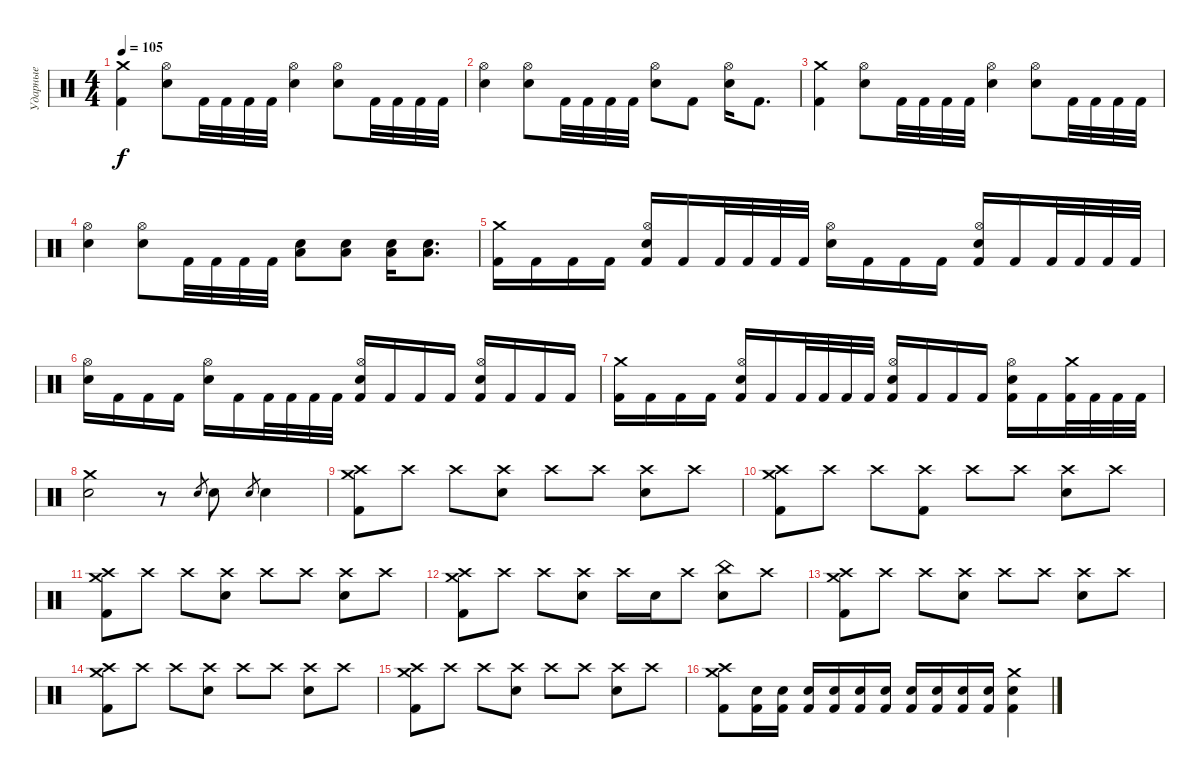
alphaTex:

\track ("Ударные" "Ударные") {instrument percussion}
\staff {score}
\articulation defaults
\ts (4 4)
\tempo 105
\clef neutral
\ks c
("Crash medium (hit)" "Kick (hit) 2").4{dy f} ("Hi-Hat (open)" "Electric Snare (hit)").8 "Kick (hit) 2".32 "Kick (hit) 2".32 "Kick (hit) 2".32 "Kick (hit) 2".32 ("Hi-Hat (open)" "Electric Snare (hit)").4 ("Hi-Hat (open)" "Electric Snare (hit)").8 "Kick (hit) 2".32 "Kick (hit) 2".32 "Kick (hit) 2".32 "Kick (hit) 2".32 |
("Hi-Hat (open)" "Electric Snare (hit)").4 ("Hi-Hat (open)" "Electric Snare (hit)").8 "Kick (hit) 2".32 "Kick (hit) 2".32 "Kick (hit) 2".32 "Kick (hit) 2".32 ("Hi-Hat (open)" "Electric Snare (hit)").8 "Kick (hit) 2".8 ("Hi-Hat (open)" "Electric Snare (hit)").16 "Kick (hit) 2".8{d} |
("Crash medium (hit)" "Kick (hit) 2").4 ("Hi-Hat (open)" "Electric Snare (hit)").8 "Kick (hit) 2".32 "Kick (hit) 2".32 "Kick (hit) 2".32 "Kick (hit) 2".32 ("Hi-Hat (open)" "Electric Snare (hit)").4 ("Hi-Hat (open)" "Electric Snare (hit)").8 "Kick (hit) 2".32 "Kick (hit) 2".32 "Kick (hit) 2".32 "Kick (hit) 2".32 |
("Hi-Hat (open)" "Electric Snare (hit)").4 ("Hi-Hat (open)" "Electric Snare (hit)").8 "Kick (hit) 2".32 "Kick (hit) 2".32 "Kick (hit) 2".32 "Kick (hit) 2".32 ("Snare (hit) 2" "Low Tom (hit)").8 ("Snare (hit) 2" "Low Tom (hit)").8 ("Snare (hit) 2" "Low Tom (hit)").16 ("Snare (hit) 2" "Low Tom (hit)").8{d} |
("Crash medium (hit)" "Kick (hit) 2").16 "Kick (hit) 2".16 "Kick (hit) 2".16 "Kick (hit) 2".16 ("Hi-Hat (open)" "Electric Snare (hit)" "Kick (hit) 2").16 "Kick (hit) 2".16 "Kick (hit) 2".32 "Kick (hit) 2".32 "Kick (hit) 2".32 "Kick (hit) 2".32 ("Hi-Hat (open)" "Electric Snare (hit)").16 "Kick (hit) 2".16 "Kick (hit) 2".16 "Kick (hit) 2".16 ("Hi-Hat (open)" "Electric Snare (hit)" "Kick (hit) 2").16 "Kick (hit) 2".16 "Kick (hit) 2".32 "Kick (hit) 2".32 "Kick (hit) 2".32 "Kick (hit) 2".32 |
("Hi-Hat (open)" "Electric Snare (hit)").16 "Kick (hit) 2".16 "Kick (hit) 2".16 "Kick (hit) 2".16 ("Hi-Hat (open)" "Electric Snare (hit)").16 "Kick (hit) 2".16 "Kick (hit) 2".32 "Kick (hit) 2".32 "Kick (hit) 2".32 "Kick (hit) 2".32 ("Hi-Hat (open)" "Electric Snare (hit)" "Kick (hit) 2").16 "Kick (hit) 2".16 "Kick (hit) 2".16 "Kick (hit) 2".16 ("Hi-Hat (open)" "Electric Snare (hit)" "Kick (hit) 2").16 "Kick (hit) 2".16 "Kick (hit) 2".16 "Kick (hit) 2".16 |
("Crash medium (hit)" "Kick (hit) 2").16 "Kick (hit) 2".16 "Kick (hit) 2".16 "Kick (hit) 2".16 ("Hi-Hat (open)" "Electric Snare (hit)" "Kick (hit) 2").16 "Kick (hit) 2".16 "Kick (hit) 2".32 "Kick (hit) 2".32 "Kick (hit) 2".32 "Kick (hit) 2".32 ("Hi-Hat (open)" "Electric Snare (hit)" "Kick (hit) 2").16 "Kick (hit) 2".16 "Kick (hit) 2".16 "Kick (hit) 2".16 ("Hi-Hat (open)" "Electric Snare (hit)" "Kick (hit) 2").16 "Kick (hit) 2".16 ("Crash medium (hit)" "Kick (hit) 2").32 "Kick (hit) 2".32 "Kick (hit) 2".32 "Kick (hit) 2".32 |
("Crash medium (hit)" "Electric Snare (hit)").2 r.8 "Electric Snare (hit)".8{gr} "Electric Snare (hit)".8 "Electric Snare (hit)".8{gr} "Electric Snare (hit)".4 |
("Crash high (hit)" "Crash medium (hit)" "Kick (hit) 2").8 "Crash high (hit)".8 "Crash high (hit)".8 ("Crash high (hit)" "Electric Snare (hit)").8 "Crash high (hit)".8 "Crash high (hit)".8 ("Crash high (hit)" "Electric Snare (hit)").8 "Crash high (hit)".8 |
("Crash high (hit)" "Crash medium (hit)" "Kick (hit) 2").8 "Crash high (hit)".8 "Crash high (hit)".8 ("Crash high (hit)" "Kick (hit) 2").8 "Crash high (hit)".8 "Crash high (hit)".8 ("Crash high (hit)" "Electric Snare (hit)").8 "Crash high (hit)".8 |
("Crash high (hit)" "Crash medium (hit)" "Kick (hit) 2").8 "Crash high (hit)".8 "Crash high (hit)".8 ("Crash high (hit)" "Electric Snare (hit)").8 "Crash high (hit)".8 "Crash high (hit)".8 ("Crash high (hit)" "Electric Snare (hit)").8 "Crash high (hit)".8 |
("Crash high (hit)" "Crash medium (hit)" "Kick (hit) 2").8 "Crash high (hit)".8 "Crash high (hit)".8 ("Crash high (hit)" "Electric Snare (hit)").8 "Crash high (hit)".16 "Electric Snare (hit)".16 "Crash high (hit)".8 ("China (hit)" "Electric Snare (hit)").8 "Crash high (hit)".8 |
("Crash high (hit)" "Crash medium (hit)" "Kick (hit) 2").8 "Crash high (hit)".8 "Crash high (hit)".8 ("Crash high (hit)" "Electric Snare (hit)").8 "Crash high (hit)".8 "Crash high (hit)".8 ("Crash high (hit)" "Electric Snare (hit)").8 "Crash high (hit)".8 |
("Crash high (hit)" "Crash medium (hit)" "Kick (hit) 2").8 "Crash high (hit)".8 "Crash high (hit)".8 ("Crash high (hit)" "Electric Snare (hit)").8 "Crash high (hit)".8 "Crash high (hit)".8 ("Crash high (hit)" "Electric Snare (hit)").8 "Crash high (hit)".8 |
("Crash high (hit)" "Crash medium (hit)" "Kick (hit) 2").8 "Crash high (hit)".8 "Crash high (hit)".8 ("Crash high (hit)" "Electric Snare (hit)").8 "Crash high (hit)".8 "Crash high (hit)".8 ("Crash high (hit)" "Electric Snare (hit)").8 "Crash high (hit)".8 |
("Crash high (hit)" "Crash medium (hit)" "Kick (hit) 2").8 ("Electric Snare (hit)" "Kick (hit) 2").16 ("Electric Snare (hit)" "Kick (hit) 2").16 ("Electric Snare (hit)" "Kick (hit) 2").16 ("Electric Snare (hit)" "Kick (hit) 2").16 ("Electric Snare (hit)" "Kick (hit) 2").16 ("Electric Snare (hit)" "Kick (hit) 2").16 ("Electric Snare (hit)" "Kick (hit) 2").16 ("Electric Snare (hit)" "Kick (hit) 2").16 ("Electric Snare (hit)" "Kick (hit) 2").16 ("Electric Snare (hit)" "Kick (hit) 2").16 ("Crash medium (hit)" "Electric Snare (hit)" "Kick (hit) 2").4
